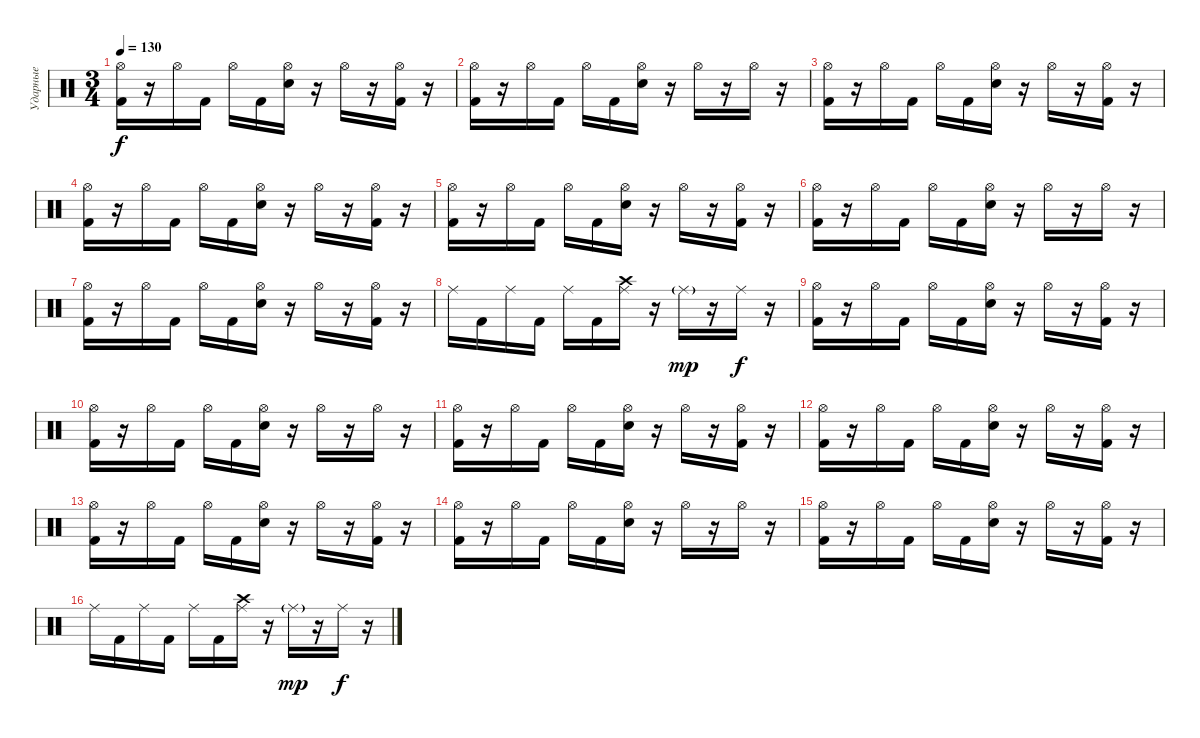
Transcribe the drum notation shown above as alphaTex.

\track ("Ударные" "Ударные") {instrument percussion}
\staff {score}
\articulation defaults
\ts (3 4)
\tempo 130
\clef neutral
\ks c
("Hi-Hat (open)" "Kick (hit) 2").16{dy f} r.16 "Hi-Hat (open)".16 "Kick (hit) 2".16 "Hi-Hat (open)".16 "Kick (hit) 2".16 ("Snare (hit) 2" "Hi-Hat (open)").16 r.16 "Hi-Hat (open)".16 r.16 ("Hi-Hat (open)" "Kick (hit) 2").16 r.16 |
("Hi-Hat (open)" "Kick (hit) 2").16 r.16 "Hi-Hat (open)".16 "Kick (hit) 2".16 "Hi-Hat (open)".16 "Kick (hit) 2".16 ("Snare (hit) 2" "Hi-Hat (open)").16 r.16 "Hi-Hat (open)".16 r.16 "Hi-Hat (open)".16 r.16 |
("Hi-Hat (open)" "Kick (hit) 2").16 r.16 "Hi-Hat (open)".16 "Kick (hit) 2".16 "Hi-Hat (open)".16 "Kick (hit) 2".16 ("Snare (hit) 2" "Hi-Hat (open)").16 r.16 "Hi-Hat (open)".16 r.16 ("Hi-Hat (open)" "Kick (hit) 2").16 r.16 |
("Hi-Hat (open)" "Kick (hit) 2").16 r.16 "Hi-Hat (open)".16 "Kick (hit) 2".16 "Hi-Hat (open)".16 "Kick (hit) 2".16 ("Snare (hit) 2" "Hi-Hat (open)").16 r.16 "Hi-Hat (open)".16 r.16 ("Hi-Hat (open)" "Kick (hit) 2").16 r.16 |
("Hi-Hat (open)" "Kick (hit) 2").16 r.16 "Hi-Hat (open)".16 "Kick (hit) 2".16 "Hi-Hat (open)".16 "Kick (hit) 2".16 ("Snare (hit) 2" "Hi-Hat (open)").16 r.16 "Hi-Hat (open)".16 r.16 ("Hi-Hat (open)" "Kick (hit) 2").16 r.16 |
("Hi-Hat (open)" "Kick (hit) 2").16 r.16 "Hi-Hat (open)".16 "Kick (hit) 2".16 "Hi-Hat (open)".16 "Kick (hit) 2".16 ("Snare (hit) 2" "Hi-Hat (open)").16 r.16 "Hi-Hat (open)".16 r.16 "Hi-Hat (open)".16 r.16 |
("Hi-Hat (open)" "Kick (hit) 2").16 r.16 "Hi-Hat (open)".16 "Kick (hit) 2".16 "Hi-Hat (open)".16 "Kick (hit) 2".16 ("Snare (hit) 2" "Hi-Hat (open)").16 r.16 "Hi-Hat (open)".16 r.16 ("Hi-Hat (open)" "Kick (hit) 2").16 r.16 |
"Ride (middle)".16 "Kick (hit) 2".16 "Ride (middle)".16 "Kick (hit) 2".16 "Ride (middle)".16 "Kick (hit) 2".16 ("Ride (middle)" "Crash high (hit)").16 r.16 "Ride (middle)"{g}.16{dy mp} r.16 "Ride (middle)".16{dy f} r.16 |
("Hi-Hat (open)" "Kick (hit) 2").16 r.16 "Hi-Hat (open)".16 "Kick (hit) 2".16 "Hi-Hat (open)".16 "Kick (hit) 2".16 ("Snare (hit) 2" "Hi-Hat (open)").16 r.16 "Hi-Hat (open)".16 r.16 ("Hi-Hat (open)" "Kick (hit) 2").16 r.16 |
("Hi-Hat (open)" "Kick (hit) 2").16 r.16 "Hi-Hat (open)".16 "Kick (hit) 2".16 "Hi-Hat (open)".16 "Kick (hit) 2".16 ("Snare (hit) 2" "Hi-Hat (open)").16 r.16 "Hi-Hat (open)".16 r.16 "Hi-Hat (open)".16 r.16 |
("Hi-Hat (open)" "Kick (hit) 2").16 r.16 "Hi-Hat (open)".16 "Kick (hit) 2".16 "Hi-Hat (open)".16 "Kick (hit) 2".16 ("Snare (hit) 2" "Hi-Hat (open)").16 r.16 "Hi-Hat (open)".16 r.16 ("Hi-Hat (open)" "Kick (hit) 2").16 r.16 |
("Hi-Hat (open)" "Kick (hit) 2").16 r.16 "Hi-Hat (open)".16 "Kick (hit) 2".16 "Hi-Hat (open)".16 "Kick (hit) 2".16 ("Snare (hit) 2" "Hi-Hat (open)").16 r.16 "Hi-Hat (open)".16 r.16 ("Hi-Hat (open)" "Kick (hit) 2").16 r.16 |
("Hi-Hat (open)" "Kick (hit) 2").16 r.16 "Hi-Hat (open)".16 "Kick (hit) 2".16 "Hi-Hat (open)".16 "Kick (hit) 2".16 ("Snare (hit) 2" "Hi-Hat (open)").16 r.16 "Hi-Hat (open)".16 r.16 ("Hi-Hat (open)" "Kick (hit) 2").16 r.16 |
("Hi-Hat (open)" "Kick (hit) 2").16 r.16 "Hi-Hat (open)".16 "Kick (hit) 2".16 "Hi-Hat (open)".16 "Kick (hit) 2".16 ("Snare (hit) 2" "Hi-Hat (open)").16 r.16 "Hi-Hat (open)".16 r.16 "Hi-Hat (open)".16 r.16 |
("Hi-Hat (open)" "Kick (hit) 2").16 r.16 "Hi-Hat (open)".16 "Kick (hit) 2".16 "Hi-Hat (open)".16 "Kick (hit) 2".16 ("Snare (hit) 2" "Hi-Hat (open)").16 r.16 "Hi-Hat (open)".16 r.16 ("Hi-Hat (open)" "Kick (hit) 2").16 r.16 |
"Ride (middle)".16 "Kick (hit) 2".16 "Ride (middle)".16 "Kick (hit) 2".16 "Ride (middle)".16 "Kick (hit) 2".16 ("Ride (middle)" "Crash high (hit)").16 r.16 "Ride (middle)"{g}.16{dy mp} r.16 "Ride (middle)".16{dy f} r.16
